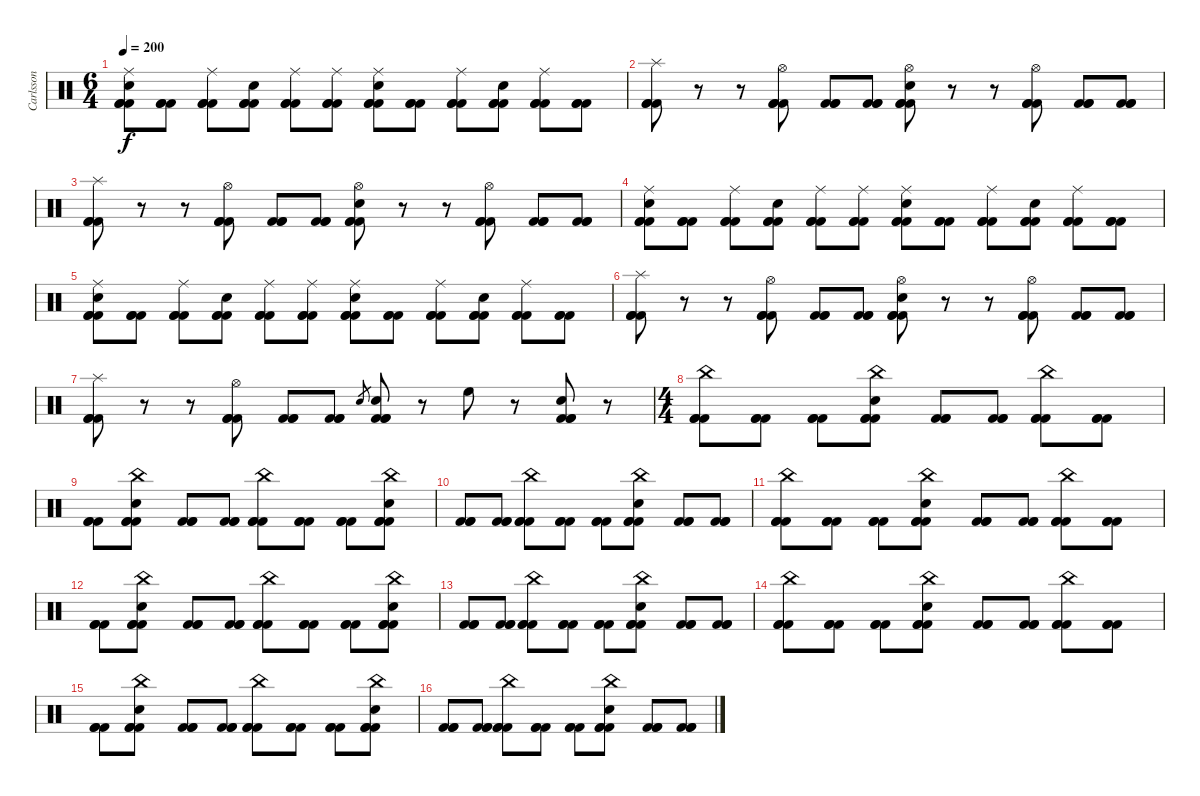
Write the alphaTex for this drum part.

\track ("Carlsson" "Carlsson") {instrument percussion}
\staff {score}
\articulation defaults
\ts (6 4)
\tempo 200
\clef neutral
\ks c
("Ride (middle)" "Snare (hit) 2" "Kick (hit) 2" "Kick (hit) 2" "Kick (hit) 2").8{dy f} ("Kick (hit) 2" "Kick (hit) 2" "Kick (hit) 2").8 ("Ride (middle)" "Kick (hit) 2" "Kick (hit) 2" "Kick (hit) 2").8 ("Snare (hit) 2" "Kick (hit) 2" "Kick (hit) 2" "Kick (hit) 2").8 ("Ride (middle)" "Kick (hit) 2" "Kick (hit) 2" "Kick (hit) 2").8 ("Ride (middle)" "Kick (hit) 2" "Kick (hit) 2" "Kick (hit) 2").8 ("Ride (middle)" "Snare (hit) 2" "Kick (hit) 2" "Kick (hit) 2" "Kick (hit) 2").8 ("Kick (hit) 2" "Kick (hit) 2" "Kick (hit) 2").8 ("Ride (middle)" "Kick (hit) 2" "Kick (hit) 2" "Kick (hit) 2").8 ("Snare (hit) 2" "Kick (hit) 2" "Kick (hit) 2" "Kick (hit) 2").8 ("Ride (middle)" "Kick (hit) 2" "Kick (hit) 2" "Kick (hit) 2").8 ("Kick (hit) 2" "Kick (hit) 2" "Kick (hit) 2").8 |
("Splash (hit)" "Kick (hit) 2" "Kick (hit) 2" "Kick (hit) 2").8 r.8 r.8 ("Hi-Hat (open)" "Kick (hit) 2" "Kick (hit) 2" "Kick (hit) 2").8 ("Kick (hit) 2" "Kick (hit) 2" "Kick (hit) 2").8 ("Kick (hit) 2" "Kick (hit) 2" "Kick (hit) 2").8 ("Hi-Hat (open)" "Snare (hit) 2" "Kick (hit) 2" "Kick (hit) 2" "Kick (hit) 2").8 r.8 r.8 ("Hi-Hat (open)" "Kick (hit) 2" "Kick (hit) 2" "Kick (hit) 2").8 ("Kick (hit) 2" "Kick (hit) 2" "Kick (hit) 2").8 ("Kick (hit) 2" "Kick (hit) 2" "Kick (hit) 2").8 |
("Splash (hit)" "Kick (hit) 2" "Kick (hit) 2" "Kick (hit) 2").8 r.8 r.8 ("Hi-Hat (open)" "Kick (hit) 2" "Kick (hit) 2" "Kick (hit) 2").8 ("Kick (hit) 2" "Kick (hit) 2" "Kick (hit) 2").8 ("Kick (hit) 2" "Kick (hit) 2" "Kick (hit) 2").8 ("Hi-Hat (open)" "Snare (hit) 2" "Kick (hit) 2" "Kick (hit) 2" "Kick (hit) 2").8 r.8 r.8 ("Hi-Hat (open)" "Kick (hit) 2" "Kick (hit) 2" "Kick (hit) 2").8 ("Kick (hit) 2" "Kick (hit) 2" "Kick (hit) 2").8 ("Kick (hit) 2" "Kick (hit) 2" "Kick (hit) 2").8 |
("Ride (middle)" "Snare (hit) 2" "Kick (hit) 2" "Kick (hit) 2" "Kick (hit) 2").8 ("Kick (hit) 2" "Kick (hit) 2" "Kick (hit) 2").8 ("Ride (middle)" "Kick (hit) 2" "Kick (hit) 2" "Kick (hit) 2").8 ("Snare (hit) 2" "Kick (hit) 2" "Kick (hit) 2" "Kick (hit) 2").8 ("Ride (middle)" "Kick (hit) 2" "Kick (hit) 2" "Kick (hit) 2").8 ("Ride (middle)" "Kick (hit) 2" "Kick (hit) 2" "Kick (hit) 2").8 ("Ride (middle)" "Snare (hit) 2" "Kick (hit) 2" "Kick (hit) 2" "Kick (hit) 2").8 ("Kick (hit) 2" "Kick (hit) 2" "Kick (hit) 2").8 ("Ride (middle)" "Kick (hit) 2" "Kick (hit) 2" "Kick (hit) 2").8 ("Snare (hit) 2" "Kick (hit) 2" "Kick (hit) 2" "Kick (hit) 2").8 ("Ride (middle)" "Kick (hit) 2" "Kick (hit) 2" "Kick (hit) 2").8 ("Kick (hit) 2" "Kick (hit) 2" "Kick (hit) 2").8 |
("Ride (middle)" "Snare (hit) 2" "Kick (hit) 2" "Kick (hit) 2" "Kick (hit) 2").8 ("Kick (hit) 2" "Kick (hit) 2" "Kick (hit) 2").8 ("Ride (middle)" "Kick (hit) 2" "Kick (hit) 2" "Kick (hit) 2").8 ("Snare (hit) 2" "Kick (hit) 2" "Kick (hit) 2" "Kick (hit) 2").8 ("Ride (middle)" "Kick (hit) 2" "Kick (hit) 2" "Kick (hit) 2").8 ("Ride (middle)" "Kick (hit) 2" "Kick (hit) 2" "Kick (hit) 2").8 ("Ride (middle)" "Snare (hit) 2" "Kick (hit) 2" "Kick (hit) 2" "Kick (hit) 2").8 ("Kick (hit) 2" "Kick (hit) 2" "Kick (hit) 2").8 ("Ride (middle)" "Kick (hit) 2" "Kick (hit) 2" "Kick (hit) 2").8 ("Snare (hit) 2" "Kick (hit) 2" "Kick (hit) 2" "Kick (hit) 2").8 ("Ride (middle)" "Kick (hit) 2" "Kick (hit) 2" "Kick (hit) 2").8 ("Kick (hit) 2" "Kick (hit) 2" "Kick (hit) 2").8 |
("Splash (hit)" "Kick (hit) 2" "Kick (hit) 2" "Kick (hit) 2").8 r.8 r.8 ("Hi-Hat (open)" "Kick (hit) 2" "Kick (hit) 2" "Kick (hit) 2").8 ("Kick (hit) 2" "Kick (hit) 2" "Kick (hit) 2").8 ("Kick (hit) 2" "Kick (hit) 2" "Kick (hit) 2").8 ("Hi-Hat (open)" "Snare (hit) 2" "Kick (hit) 2" "Kick (hit) 2" "Kick (hit) 2").8 r.8 r.8 ("Hi-Hat (open)" "Kick (hit) 2" "Kick (hit) 2" "Kick (hit) 2").8 ("Kick (hit) 2" "Kick (hit) 2" "Kick (hit) 2").8 ("Kick (hit) 2" "Kick (hit) 2" "Kick (hit) 2").8 |
("Splash (hit)" "Kick (hit) 2" "Kick (hit) 2" "Kick (hit) 2").8 r.8 r.8 ("Hi-Hat (open)" "Kick (hit) 2" "Kick (hit) 2" "Kick (hit) 2").8 ("Kick (hit) 2" "Kick (hit) 2" "Kick (hit) 2").8 ("Kick (hit) 2" "Kick (hit) 2" "Kick (hit) 2").8 "Snare (hit) 2".8{gr} ("Snare (hit) 2" "Kick (hit) 2" "Kick (hit) 2" "Kick (hit) 2").8 r.8 "High Floor Tom (hit)".8 r.8 ("Snare (hit) 2" "Kick (hit) 2" "Kick (hit) 2" "Kick (hit) 2").8 r.8 |
\ts (4 4)
("China (hit)" "Kick (hit) 2" "Kick (hit) 2" "Kick (hit) 2").8 ("Kick (hit) 2" "Kick (hit) 2" "Kick (hit) 2").8 ("Kick (hit) 2" "Kick (hit) 2" "Kick (hit) 2").8 ("China (hit)" "Snare (hit) 2" "Kick (hit) 2" "Kick (hit) 2" "Kick (hit) 2").8 ("Kick (hit) 2" "Kick (hit) 2" "Kick (hit) 2").8 ("Kick (hit) 2" "Kick (hit) 2" "Kick (hit) 2").8 ("China (hit)" "Kick (hit) 2" "Kick (hit) 2" "Kick (hit) 2").8 ("Kick (hit) 2" "Kick (hit) 2" "Kick (hit) 2").8 |
("Kick (hit) 2" "Kick (hit) 2" "Kick (hit) 2").8 ("China (hit)" "Snare (hit) 2" "Kick (hit) 2" "Kick (hit) 2" "Kick (hit) 2").8 ("Kick (hit) 2" "Kick (hit) 2" "Kick (hit) 2").8 ("Kick (hit) 2" "Kick (hit) 2" "Kick (hit) 2").8 ("China (hit)" "Kick (hit) 2" "Kick (hit) 2" "Kick (hit) 2").8 ("Kick (hit) 2" "Kick (hit) 2" "Kick (hit) 2").8 ("Kick (hit) 2" "Kick (hit) 2" "Kick (hit) 2").8 ("China (hit)" "Snare (hit) 2" "Kick (hit) 2" "Kick (hit) 2" "Kick (hit) 2").8 |
("Kick (hit) 2" "Kick (hit) 2" "Kick (hit) 2").8 ("Kick (hit) 2" "Kick (hit) 2" "Kick (hit) 2").8 ("China (hit)" "Kick (hit) 2" "Kick (hit) 2" "Kick (hit) 2").8 ("Kick (hit) 2" "Kick (hit) 2" "Kick (hit) 2").8 ("Kick (hit) 2" "Kick (hit) 2" "Kick (hit) 2").8 ("China (hit)" "Snare (hit) 2" "Kick (hit) 2" "Kick (hit) 2" "Kick (hit) 2").8 ("Kick (hit) 2" "Kick (hit) 2" "Kick (hit) 2").8 ("Kick (hit) 2" "Kick (hit) 2" "Kick (hit) 2").8 |
("China (hit)" "Kick (hit) 2" "Kick (hit) 2" "Kick (hit) 2").8 ("Kick (hit) 2" "Kick (hit) 2" "Kick (hit) 2").8 ("Kick (hit) 2" "Kick (hit) 2" "Kick (hit) 2").8 ("China (hit)" "Snare (hit) 2" "Kick (hit) 2" "Kick (hit) 2" "Kick (hit) 2").8 ("Kick (hit) 2" "Kick (hit) 2" "Kick (hit) 2").8 ("Kick (hit) 2" "Kick (hit) 2" "Kick (hit) 2").8 ("China (hit)" "Kick (hit) 2" "Kick (hit) 2" "Kick (hit) 2").8 ("Kick (hit) 2" "Kick (hit) 2" "Kick (hit) 2").8 |
("Kick (hit) 2" "Kick (hit) 2" "Kick (hit) 2").8 ("China (hit)" "Snare (hit) 2" "Kick (hit) 2" "Kick (hit) 2" "Kick (hit) 2").8 ("Kick (hit) 2" "Kick (hit) 2" "Kick (hit) 2").8 ("Kick (hit) 2" "Kick (hit) 2" "Kick (hit) 2").8 ("China (hit)" "Kick (hit) 2" "Kick (hit) 2" "Kick (hit) 2").8 ("Kick (hit) 2" "Kick (hit) 2" "Kick (hit) 2").8 ("Kick (hit) 2" "Kick (hit) 2" "Kick (hit) 2").8 ("China (hit)" "Snare (hit) 2" "Kick (hit) 2" "Kick (hit) 2" "Kick (hit) 2").8 |
("Kick (hit) 2" "Kick (hit) 2" "Kick (hit) 2").8 ("Kick (hit) 2" "Kick (hit) 2" "Kick (hit) 2").8 ("China (hit)" "Kick (hit) 2" "Kick (hit) 2" "Kick (hit) 2").8 ("Kick (hit) 2" "Kick (hit) 2" "Kick (hit) 2").8 ("Kick (hit) 2" "Kick (hit) 2" "Kick (hit) 2").8 ("China (hit)" "Snare (hit) 2" "Kick (hit) 2" "Kick (hit) 2" "Kick (hit) 2").8 ("Kick (hit) 2" "Kick (hit) 2" "Kick (hit) 2").8 ("Kick (hit) 2" "Kick (hit) 2" "Kick (hit) 2").8 |
("China (hit)" "Kick (hit) 2" "Kick (hit) 2" "Kick (hit) 2").8 ("Kick (hit) 2" "Kick (hit) 2" "Kick (hit) 2").8 ("Kick (hit) 2" "Kick (hit) 2" "Kick (hit) 2").8 ("China (hit)" "Snare (hit) 2" "Kick (hit) 2" "Kick (hit) 2" "Kick (hit) 2").8 ("Kick (hit) 2" "Kick (hit) 2" "Kick (hit) 2").8 ("Kick (hit) 2" "Kick (hit) 2" "Kick (hit) 2").8 ("China (hit)" "Kick (hit) 2" "Kick (hit) 2" "Kick (hit) 2").8 ("Kick (hit) 2" "Kick (hit) 2" "Kick (hit) 2").8 |
("Kick (hit) 2" "Kick (hit) 2" "Kick (hit) 2").8 ("China (hit)" "Snare (hit) 2" "Kick (hit) 2" "Kick (hit) 2" "Kick (hit) 2").8 ("Kick (hit) 2" "Kick (hit) 2" "Kick (hit) 2").8 ("Kick (hit) 2" "Kick (hit) 2" "Kick (hit) 2").8 ("China (hit)" "Kick (hit) 2" "Kick (hit) 2" "Kick (hit) 2").8 ("Kick (hit) 2" "Kick (hit) 2" "Kick (hit) 2").8 ("Kick (hit) 2" "Kick (hit) 2" "Kick (hit) 2").8 ("China (hit)" "Snare (hit) 2" "Kick (hit) 2" "Kick (hit) 2" "Kick (hit) 2").8 |
("Kick (hit) 2" "Kick (hit) 2" "Kick (hit) 2").8 ("Kick (hit) 2" "Kick (hit) 2" "Kick (hit) 2").8 ("China (hit)" "Kick (hit) 2" "Kick (hit) 2" "Kick (hit) 2").8 ("Kick (hit) 2" "Kick (hit) 2" "Kick (hit) 2").8 ("Kick (hit) 2" "Kick (hit) 2" "Kick (hit) 2").8 ("China (hit)" "Snare (hit) 2" "Kick (hit) 2" "Kick (hit) 2" "Kick (hit) 2").8 ("Kick (hit) 2" "Kick (hit) 2" "Kick (hit) 2").8 ("Kick (hit) 2" "Kick (hit) 2" "Kick (hit) 2").8
